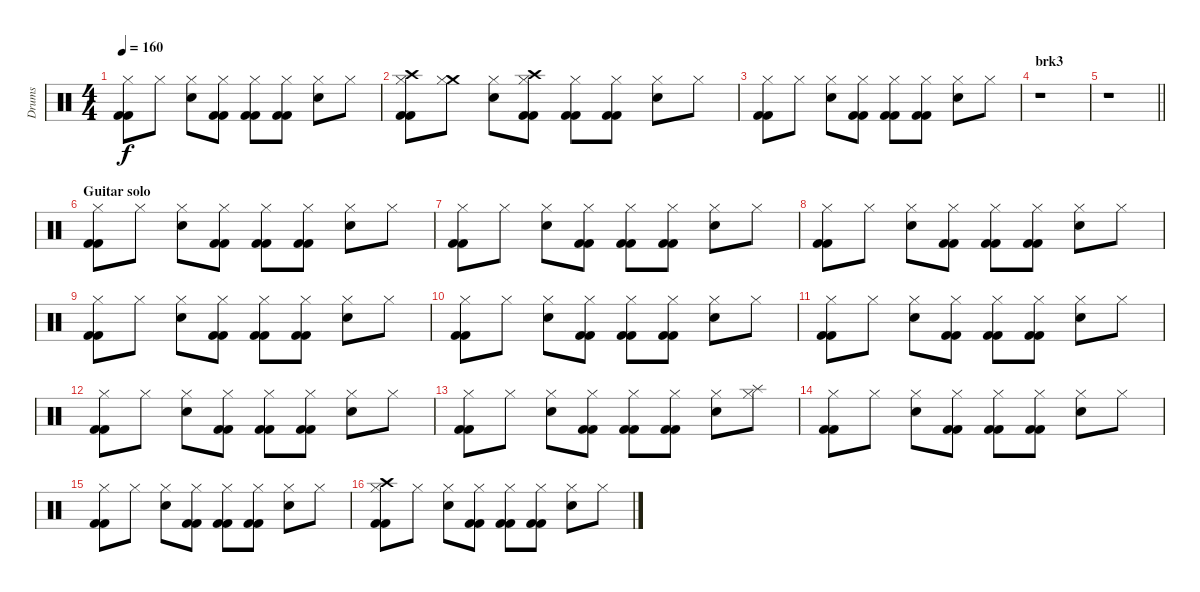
\track ("Drums" "Drums") {instrument percussion}
\staff {score}
\articulation defaults
\ts (4 4)
\tempo 160
\clef neutral
\ks c
("Hi-Hat (closed)" "Kick (hit) 2" "Kick (hit) 2").8{dy f} "Hi-Hat (closed)".8 ("Hi-Hat (closed)" "Electric Snare (hit)").8 ("Hi-Hat (closed)" "Kick (hit) 2" "Kick (hit) 2").8 ("Hi-Hat (closed)" "Kick (hit) 2" "Kick (hit) 2").8 ("Hi-Hat (closed)" "Kick (hit) 2" "Kick (hit) 2").8 ("Hi-Hat (closed)" "Electric Snare (hit)").8 "Hi-Hat (closed)".8 |
("Crash high (hit)" "Hi-Hat (closed)" "Kick (hit) 2" "Kick (hit) 2").8 ("Crash medium (hit)" "Hi-Hat (closed)").8 ("Hi-Hat (closed)" "Electric Snare (hit)").8 ("Crash high (hit)" "Hi-Hat (closed)" "Kick (hit) 2" "Kick (hit) 2").8 ("Hi-Hat (closed)" "Kick (hit) 2" "Kick (hit) 2").8 ("Hi-Hat (closed)" "Kick (hit) 2" "Kick (hit) 2").8 ("Hi-Hat (closed)" "Electric Snare (hit)").8 "Hi-Hat (closed)".8 |
("Hi-Hat (closed)" "Kick (hit) 2" "Kick (hit) 2").8 "Hi-Hat (closed)".8 ("Hi-Hat (closed)" "Electric Snare (hit)").8 ("Hi-Hat (closed)" "Kick (hit) 2" "Kick (hit) 2").8 ("Hi-Hat (closed)" "Kick (hit) 2" "Kick (hit) 2").8 ("Hi-Hat (closed)" "Kick (hit) 2" "Kick (hit) 2").8 ("Hi-Hat (closed)" "Electric Snare (hit)").8 "Hi-Hat (closed)".8 |
\section ("" "brk3")
r.1 |
\barLineRight lightlight
r.1 |
\section ("" "Guitar solo")
("Hi-Hat (closed)" "Kick (hit) 2" "Kick (hit) 2").8 "Hi-Hat (closed)".8 ("Hi-Hat (closed)" "Electric Snare (hit)").8 ("Hi-Hat (closed)" "Kick (hit) 2" "Kick (hit) 2").8 ("Hi-Hat (closed)" "Kick (hit) 2" "Kick (hit) 2").8 ("Hi-Hat (closed)" "Kick (hit) 2" "Kick (hit) 2").8 ("Hi-Hat (closed)" "Electric Snare (hit)").8 "Hi-Hat (closed)".8 |
("Hi-Hat (closed)" "Kick (hit) 2" "Kick (hit) 2").8 "Hi-Hat (closed)".8 ("Hi-Hat (closed)" "Electric Snare (hit)").8 ("Hi-Hat (closed)" "Kick (hit) 2" "Kick (hit) 2").8 ("Hi-Hat (closed)" "Kick (hit) 2" "Kick (hit) 2").8 ("Hi-Hat (closed)" "Kick (hit) 2" "Kick (hit) 2").8 ("Hi-Hat (closed)" "Electric Snare (hit)").8 "Hi-Hat (closed)".8 |
("Hi-Hat (closed)" "Kick (hit) 2" "Kick (hit) 2").8 "Hi-Hat (closed)".8 ("Hi-Hat (closed)" "Electric Snare (hit)").8 ("Hi-Hat (closed)" "Kick (hit) 2" "Kick (hit) 2").8 ("Hi-Hat (closed)" "Kick (hit) 2" "Kick (hit) 2").8 ("Hi-Hat (closed)" "Kick (hit) 2" "Kick (hit) 2").8 ("Hi-Hat (closed)" "Electric Snare (hit)").8 "Hi-Hat (closed)".8 |
("Hi-Hat (closed)" "Kick (hit) 2" "Kick (hit) 2").8 "Hi-Hat (closed)".8 ("Hi-Hat (closed)" "Electric Snare (hit)").8 ("Hi-Hat (closed)" "Kick (hit) 2" "Kick (hit) 2").8 ("Hi-Hat (closed)" "Kick (hit) 2" "Kick (hit) 2").8 ("Hi-Hat (closed)" "Kick (hit) 2" "Kick (hit) 2").8 ("Hi-Hat (closed)" "Electric Snare (hit)").8 "Hi-Hat (closed)".8 |
("Hi-Hat (closed)" "Kick (hit) 2" "Kick (hit) 2").8 "Hi-Hat (closed)".8 ("Hi-Hat (closed)" "Electric Snare (hit)").8 ("Hi-Hat (closed)" "Kick (hit) 2" "Kick (hit) 2").8 ("Hi-Hat (closed)" "Kick (hit) 2" "Kick (hit) 2").8 ("Hi-Hat (closed)" "Kick (hit) 2" "Kick (hit) 2").8 ("Hi-Hat (closed)" "Electric Snare (hit)").8 "Hi-Hat (closed)".8 |
("Hi-Hat (closed)" "Kick (hit) 2" "Kick (hit) 2").8 "Hi-Hat (closed)".8 ("Hi-Hat (closed)" "Electric Snare (hit)").8 ("Hi-Hat (closed)" "Kick (hit) 2" "Kick (hit) 2").8 ("Hi-Hat (closed)" "Kick (hit) 2" "Kick (hit) 2").8 ("Hi-Hat (closed)" "Kick (hit) 2" "Kick (hit) 2").8 ("Hi-Hat (closed)" "Electric Snare (hit)").8 "Hi-Hat (closed)".8 |
("Hi-Hat (closed)" "Kick (hit) 2" "Kick (hit) 2").8 "Hi-Hat (closed)".8 ("Hi-Hat (closed)" "Electric Snare (hit)").8 ("Hi-Hat (closed)" "Kick (hit) 2" "Kick (hit) 2").8 ("Hi-Hat (closed)" "Kick (hit) 2" "Kick (hit) 2").8 ("Hi-Hat (closed)" "Kick (hit) 2" "Kick (hit) 2").8 ("Hi-Hat (closed)" "Electric Snare (hit)").8 "Hi-Hat (closed)".8 |
("Hi-Hat (closed)" "Kick (hit) 2" "Kick (hit) 2").8 "Hi-Hat (closed)".8 ("Hi-Hat (closed)" "Electric Snare (hit)").8 ("Hi-Hat (closed)" "Kick (hit) 2" "Kick (hit) 2").8 ("Hi-Hat (closed)" "Kick (hit) 2" "Kick (hit) 2").8 ("Hi-Hat (closed)" "Kick (hit) 2" "Kick (hit) 2").8 ("Hi-Hat (closed)" "Electric Snare (hit)").8 ("Splash (hit)" "Hi-Hat (closed)").8 |
("Hi-Hat (closed)" "Kick (hit) 2" "Kick (hit) 2").8 "Hi-Hat (closed)".8 ("Hi-Hat (closed)" "Electric Snare (hit)").8 ("Hi-Hat (closed)" "Kick (hit) 2" "Kick (hit) 2").8 ("Hi-Hat (closed)" "Kick (hit) 2" "Kick (hit) 2").8 ("Hi-Hat (closed)" "Kick (hit) 2" "Kick (hit) 2").8 ("Hi-Hat (closed)" "Electric Snare (hit)").8 "Hi-Hat (closed)".8 |
("Hi-Hat (closed)" "Kick (hit) 2" "Kick (hit) 2").8 "Hi-Hat (closed)".8 ("Hi-Hat (closed)" "Electric Snare (hit)").8 ("Hi-Hat (closed)" "Kick (hit) 2" "Kick (hit) 2").8 ("Hi-Hat (closed)" "Kick (hit) 2" "Kick (hit) 2").8 ("Hi-Hat (closed)" "Kick (hit) 2" "Kick (hit) 2").8 ("Hi-Hat (closed)" "Electric Snare (hit)").8 "Hi-Hat (closed)".8 |
("Crash high (hit)" "Hi-Hat (closed)" "Kick (hit) 2" "Kick (hit) 2").8 "Hi-Hat (closed)".8 ("Hi-Hat (closed)" "Electric Snare (hit)").8 ("Hi-Hat (closed)" "Kick (hit) 2" "Kick (hit) 2").8 ("Hi-Hat (closed)" "Kick (hit) 2" "Kick (hit) 2").8 ("Hi-Hat (closed)" "Kick (hit) 2" "Kick (hit) 2").8 ("Hi-Hat (closed)" "Electric Snare (hit)").8 "Hi-Hat (closed)".8
